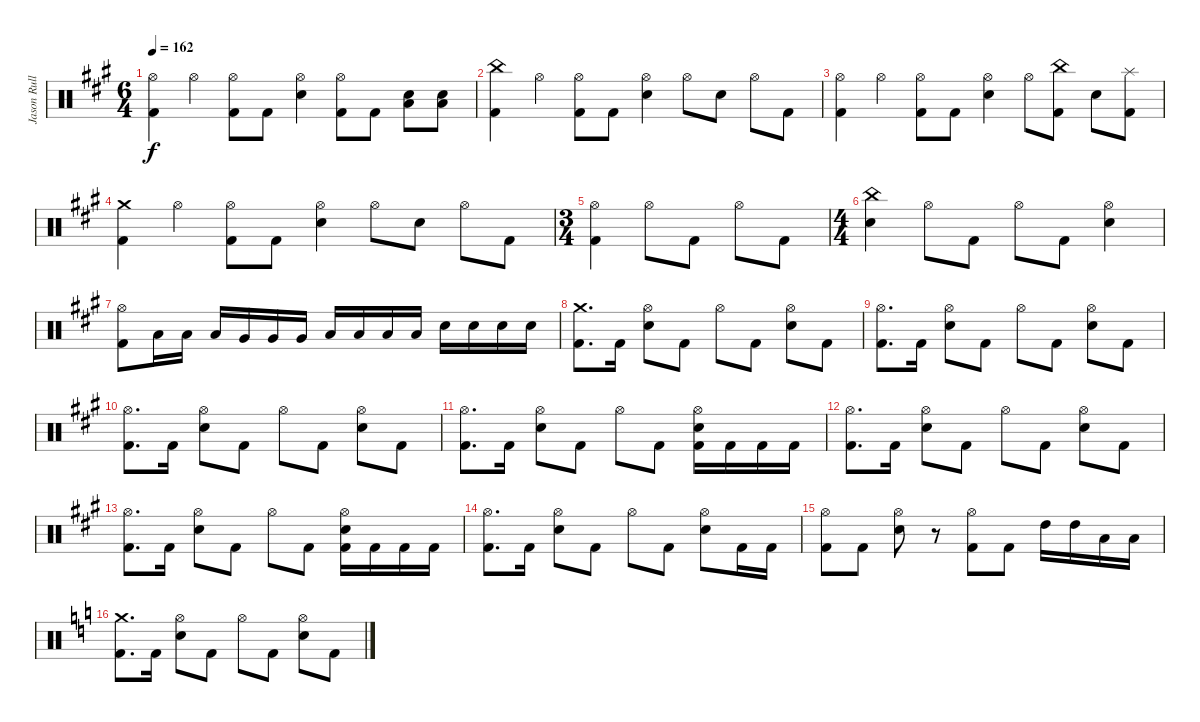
\track ("Jason Rullo" "Jason Rull") {instrument percussion}
\staff {score}
\articulation defaults
\ts (6 4)
\tempo 162
\clef neutral
\ks f#minor
("Hi-Hat (open)" "Kick (hit) 2").4{dy f} "Hi-Hat (open)".4 ("Hi-Hat (open)" "Kick (hit) 2").8 "Kick (hit) 2".8 ("Electric Snare (hit)" "Hi-Hat (open)").4 ("Kick (hit) 2" "Hi-Hat (open)").8 "Kick (hit) 2".8 ("Low Tom (hit)" "Electric Snare (hit)").8 ("Low Tom (hit)" "Electric Snare (hit)").8 |
("China (hit)" "Kick (hit) 2").4 "Hi-Hat (open)".4 ("Hi-Hat (open)" "Kick (hit) 2").8 "Kick (hit) 2".8 ("Electric Snare (hit)" "Hi-Hat (open)").4 "Hi-Hat (open)".8 "Electric Snare (hit)".8 "Hi-Hat (open)".8 "Kick (hit) 2".8 |
("Hi-Hat (open)" "Kick (hit) 2").4 "Hi-Hat (open)".4 ("Hi-Hat (open)" "Kick (hit) 2").8 "Kick (hit) 2".8 ("Hi-Hat (open)" "Electric Snare (hit)").4 "Hi-Hat (open)".8 ("China (hit)" "Kick (hit) 2").8 "Electric Snare (hit)".8 ("Splash (hit)" "Kick (hit) 2").8 |
("Crash medium (hit)" "Kick (hit) 2").4 "Hi-Hat (open)".4 ("Hi-Hat (open)" "Kick (hit) 2").8 "Kick (hit) 2".8 ("Electric Snare (hit)" "Hi-Hat (open)").4 "Hi-Hat (open)".8 "Electric Snare (hit)".8 "Hi-Hat (open)".8 "Kick (hit) 2".8 |
\ts (3 4)
("Hi-Hat (open)" "Kick (hit) 2").4 "Hi-Hat (open)".8 "Kick (hit) 2".8 "Hi-Hat (open)".8 "Kick (hit) 2".8 |
\ts (4 4)
("Electric Snare (hit)" "China (hit)").4 "Hi-Hat (open)".8 "Kick (hit) 2".8 "Hi-Hat (open)".8 "Kick (hit) 2".8 ("Electric Snare (hit)" "Hi-Hat (open)").4 |
("Hi-Hat (open)" "Kick (hit) 2").8 "Low Tom (hit)".16 "Low Tom (hit)".16 "Low Tom (hit)".16 "Very Low Tom (hit)".16 "Very Low Tom (hit)".16 "Very Low Tom (hit)".16 "Low Floor Tom (hit)".16 "Low Floor Tom (hit)".16 "Low Floor Tom (hit)".16 "Low Floor Tom (hit)".16 "Electric Snare (hit)".16 "Electric Snare (hit)".16 "Electric Snare (hit)".16 "Electric Snare (hit)".16 |
\ks a
("Crash medium (hit)" "Kick (hit) 2").8{d} "Kick (hit) 2".16 ("Hi-Hat (open)" "Electric Snare (hit)").8 "Kick (hit) 2".8 "Hi-Hat (open)".8 "Kick (hit) 2".8 ("Hi-Hat (open)" "Electric Snare (hit)").8 "Kick (hit) 2".8 |
("Hi-Hat (open)" "Kick (hit) 2").8{d} "Kick (hit) 2".16 ("Hi-Hat (open)" "Electric Snare (hit)").8 "Kick (hit) 2".8 "Hi-Hat (open)".8 "Kick (hit) 2".8 ("Hi-Hat (open)" "Electric Snare (hit)").8 "Kick (hit) 2".8 |
("Hi-Hat (open)" "Kick (hit) 2").8{d} "Kick (hit) 2".16 ("Hi-Hat (open)" "Electric Snare (hit)").8 "Kick (hit) 2".8 "Hi-Hat (open)".8 "Kick (hit) 2".8 ("Hi-Hat (open)" "Electric Snare (hit)").8 "Kick (hit) 2".8 |
("Hi-Hat (open)" "Kick (hit) 2").8{d} "Kick (hit) 2".16 ("Hi-Hat (open)" "Electric Snare (hit)").8 "Kick (hit) 2".8 "Hi-Hat (open)".8 "Kick (hit) 2".8 ("Kick (hit) 2" "Hi-Hat (open)" "Electric Snare (hit)").16 "Kick (hit) 2".16 "Kick (hit) 2".16 "Kick (hit) 2".16 |
("Hi-Hat (open)" "Kick (hit) 2").8{d} "Kick (hit) 2".16 ("Hi-Hat (open)" "Electric Snare (hit)").8 "Kick (hit) 2".8 "Hi-Hat (open)".8 "Kick (hit) 2".8 ("Hi-Hat (open)" "Electric Snare (hit)").8 "Kick (hit) 2".8 |
("Hi-Hat (open)" "Kick (hit) 2").8{d} "Kick (hit) 2".16 ("Hi-Hat (open)" "Electric Snare (hit)").8 "Kick (hit) 2".8 "Hi-Hat (open)".8 "Kick (hit) 2".8 ("Kick (hit) 2" "Hi-Hat (open)" "Electric Snare (hit)").16 "Kick (hit) 2".16 "Kick (hit) 2".16 "Kick (hit) 2".16 |
("Hi-Hat (open)" "Kick (hit) 2").8{d} "Kick (hit) 2".16 ("Hi-Hat (open)" "Electric Snare (hit)").8 "Kick (hit) 2".8 "Hi-Hat (open)".8 "Kick (hit) 2".8 ("Hi-Hat (open)" "Electric Snare (hit)").8 "Kick (hit) 2".16 "Kick (hit) 2".16 |
("Kick (hit) 2" "Hi-Hat (open)").8 "Kick (hit) 2".8 ("Electric Snare (hit)" "Hi-Hat (open)").8 r.8 ("Kick (hit) 2" "Hi-Hat (open)").8 "Kick (hit) 2".8 "High Tom (hit)".16 "High Tom (hit)".16 "Low Tom (hit)".16 "Low Tom (hit)".16 |
\ks aminor
("Crash medium (hit)" "Kick (hit) 2").8{d} "Kick (hit) 2".16 ("Hi-Hat (open)" "Electric Snare (hit)").8 "Kick (hit) 2".8 "Hi-Hat (open)".8 "Kick (hit) 2".8 ("Hi-Hat (open)" "Electric Snare (hit)").8 "Kick (hit) 2".8
